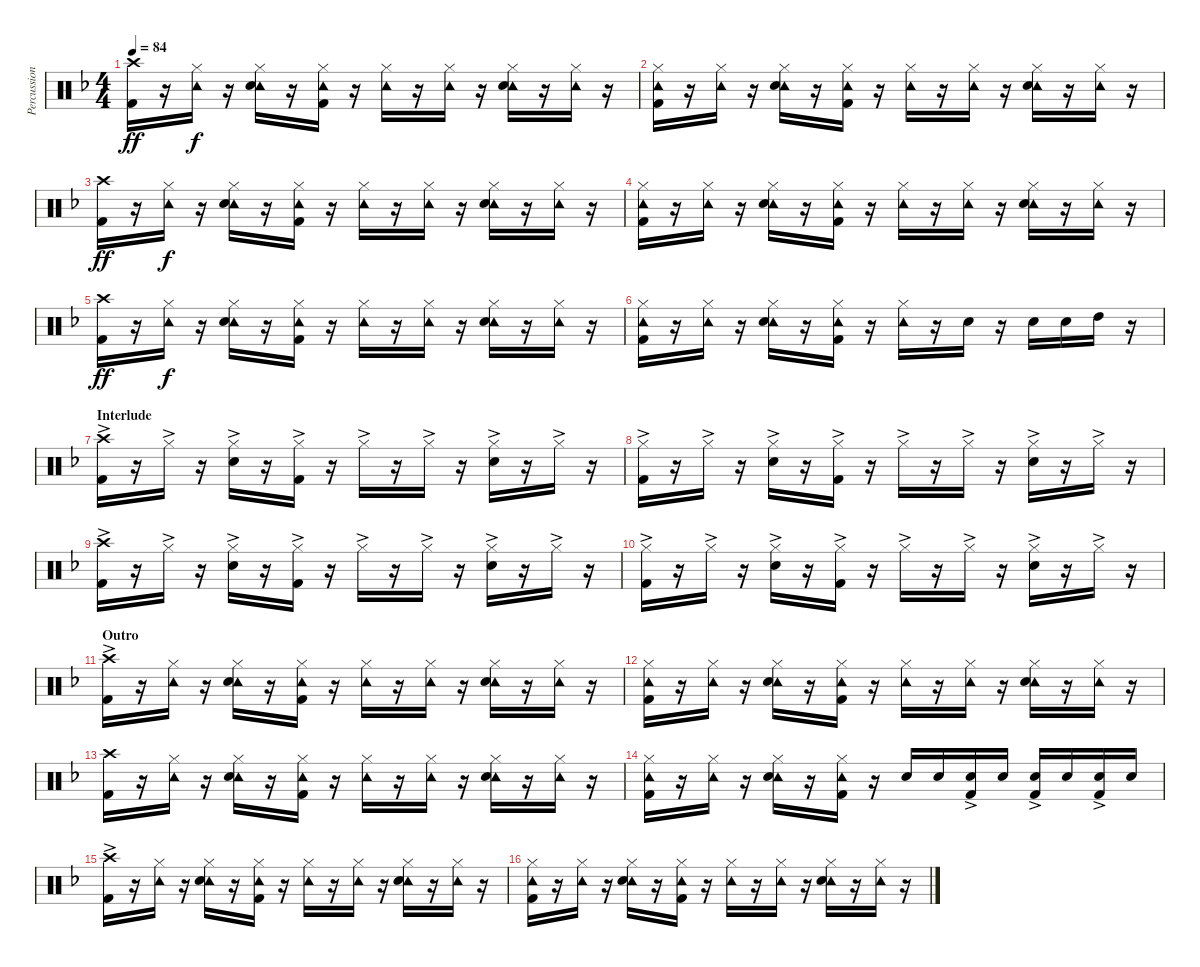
\track ("Percussion" "Percussion") {instrument percussion}
\staff {score}
\articulation defaults
\ts (4 4)
\tempo 84
\clef neutral
\ks f
("Crash high (hit)" "Kick (hit) 2").16{dy ff} r.16 ("Hi-Hat (closed)" "Tambourine (hit)").16{dy f} r.16 ("Hi-Hat (closed)" "Tambourine (hit)" "Snare (hit) 2").16 r.16 ("Hi-Hat (closed)" "Tambourine (hit)" "Kick (hit) 2").16 r.16 ("Hi-Hat (closed)" "Tambourine (hit)").16 r.16 ("Hi-Hat (closed)" "Tambourine (hit)").16 r.16 ("Hi-Hat (closed)" "Tambourine (hit)" "Snare (hit) 2").16 r.16 ("Hi-Hat (closed)" "Tambourine (hit)").16 r.16 |
("Hi-Hat (closed)" "Tambourine (hit)" "Kick (hit) 2").16 r.16 ("Hi-Hat (closed)" "Tambourine (hit)").16 r.16 ("Hi-Hat (closed)" "Tambourine (hit)" "Snare (hit) 2").16 r.16 ("Hi-Hat (closed)" "Tambourine (hit)" "Kick (hit) 2").16 r.16 ("Hi-Hat (closed)" "Tambourine (hit)").16 r.16 ("Hi-Hat (closed)" "Tambourine (hit)").16 r.16 ("Hi-Hat (closed)" "Tambourine (hit)" "Snare (hit) 2").16 r.16 ("Hi-Hat (closed)" "Tambourine (hit)").16 r.16 |
("Crash high (hit)" "Kick (hit) 2").16{dy ff} r.16 ("Hi-Hat (closed)" "Tambourine (hit)").16{dy f} r.16 ("Hi-Hat (closed)" "Tambourine (hit)" "Snare (hit) 2").16 r.16 ("Hi-Hat (closed)" "Tambourine (hit)" "Kick (hit) 2").16 r.16 ("Hi-Hat (closed)" "Tambourine (hit)").16 r.16 ("Hi-Hat (closed)" "Tambourine (hit)").16 r.16 ("Hi-Hat (closed)" "Tambourine (hit)" "Snare (hit) 2").16 r.16 ("Hi-Hat (closed)" "Tambourine (hit)").16 r.16 |
("Hi-Hat (closed)" "Tambourine (hit)" "Kick (hit) 2").16 r.16 ("Hi-Hat (closed)" "Tambourine (hit)").16 r.16 ("Hi-Hat (closed)" "Tambourine (hit)" "Snare (hit) 2").16 r.16 ("Hi-Hat (closed)" "Tambourine (hit)" "Kick (hit) 2").16 r.16 ("Hi-Hat (closed)" "Tambourine (hit)").16 r.16 ("Hi-Hat (closed)" "Tambourine (hit)").16 r.16 ("Hi-Hat (closed)" "Tambourine (hit)" "Snare (hit) 2").16 r.16 ("Hi-Hat (closed)" "Tambourine (hit)").16 r.16 |
("Crash high (hit)" "Kick (hit) 2").16{dy ff} r.16 ("Hi-Hat (closed)" "Tambourine (hit)").16{dy f} r.16 ("Hi-Hat (closed)" "Tambourine (hit)" "Snare (hit) 2").16 r.16 ("Hi-Hat (closed)" "Tambourine (hit)" "Kick (hit) 2").16 r.16 ("Hi-Hat (closed)" "Tambourine (hit)").16 r.16 ("Hi-Hat (closed)" "Tambourine (hit)").16 r.16 ("Hi-Hat (closed)" "Tambourine (hit)" "Snare (hit) 2").16 r.16 ("Hi-Hat (closed)" "Tambourine (hit)").16 r.16 |
("Hi-Hat (closed)" "Tambourine (hit)" "Kick (hit) 2").16 r.16 ("Hi-Hat (closed)" "Tambourine (hit)").16 r.16 ("Hi-Hat (closed)" "Tambourine (hit)" "Snare (hit) 2").16 r.16 ("Hi-Hat (closed)" "Tambourine (hit)" "Kick (hit) 2").16 r.16 ("Hi-Hat (closed)" "Tambourine (hit)").16 r.16 "Snare (hit) 2".16 r.16 "Snare (hit) 2".16 "Snare (hit) 2".16 "High Tom (hit)".16 r.16 |
\section ("" "Interlude")
("Crash high (hit)"{ac} "Kick (hit) 2").16 r.16 "Hi-Hat (closed)"{ac}.16 r.16 ("Hi-Hat (closed)"{ac} "Snare (hit) 2").16 r.16 ("Hi-Hat (closed)"{ac} "Kick (hit) 2").16 r.16 "Hi-Hat (closed)"{ac}.16 r.16 "Hi-Hat (closed)"{ac}.16 r.16 ("Hi-Hat (closed)"{ac} "Snare (hit) 2").16 r.16 "Hi-Hat (closed)"{ac}.16 r.16 |
("Hi-Hat (closed)"{ac} "Kick (hit) 2").16 r.16 "Hi-Hat (closed)"{ac}.16 r.16 ("Hi-Hat (closed)"{ac} "Snare (hit) 2").16 r.16 ("Hi-Hat (closed)"{ac} "Kick (hit) 2").16 r.16 "Hi-Hat (closed)"{ac}.16 r.16 "Hi-Hat (closed)"{ac}.16 r.16 ("Hi-Hat (closed)"{ac} "Snare (hit) 2").16 r.16 "Hi-Hat (closed)"{ac}.16 r.16 |
("Crash high (hit)"{ac} "Kick (hit) 2").16 r.16 "Hi-Hat (closed)"{ac}.16 r.16 ("Hi-Hat (closed)"{ac} "Snare (hit) 2").16 r.16 ("Hi-Hat (closed)"{ac} "Kick (hit) 2").16 r.16 "Hi-Hat (closed)"{ac}.16 r.16 "Hi-Hat (closed)"{ac}.16 r.16 ("Hi-Hat (closed)"{ac} "Snare (hit) 2").16 r.16 "Hi-Hat (closed)"{ac}.16 r.16 |
("Hi-Hat (closed)"{ac} "Kick (hit) 2").16 r.16 "Hi-Hat (closed)"{ac}.16 r.16 ("Hi-Hat (closed)"{ac} "Snare (hit) 2").16 r.16 ("Hi-Hat (closed)"{ac} "Kick (hit) 2").16 r.16 "Hi-Hat (closed)"{ac}.16 r.16 "Hi-Hat (closed)"{ac}.16 r.16 ("Hi-Hat (closed)"{ac} "Snare (hit) 2").16 r.16 "Hi-Hat (closed)"{ac}.16 r.16 |
\section ("" "Outro")
("Crash high (hit)"{ac} "Kick (hit) 2").16 r.16 ("Hi-Hat (closed)" "Tambourine (hit)").16 r.16 ("Hi-Hat (closed)" "Tambourine (hit)" "Snare (hit) 2").16 r.16 ("Hi-Hat (closed)" "Tambourine (hit)" "Kick (hit) 2").16 r.16 ("Hi-Hat (closed)" "Tambourine (hit)").16 r.16 ("Hi-Hat (closed)" "Tambourine (hit)").16 r.16 ("Hi-Hat (closed)" "Tambourine (hit)" "Snare (hit) 2").16 r.16 ("Hi-Hat (closed)" "Tambourine (hit)").16 r.16 |
("Hi-Hat (closed)" "Tambourine (hit)" "Kick (hit) 2").16 r.16 ("Hi-Hat (closed)" "Tambourine (hit)").16 r.16 ("Hi-Hat (closed)" "Tambourine (hit)" "Snare (hit) 2").16 r.16 ("Hi-Hat (closed)" "Tambourine (hit)" "Kick (hit) 2").16 r.16 ("Hi-Hat (closed)" "Tambourine (hit)").16 r.16 ("Hi-Hat (closed)" "Tambourine (hit)").16 r.16 ("Hi-Hat (closed)" "Tambourine (hit)" "Snare (hit) 2").16 r.16 ("Hi-Hat (closed)" "Tambourine (hit)").16 r.16 |
("Crash high (hit)" "Kick (hit) 2").16 r.16 ("Hi-Hat (closed)" "Tambourine (hit)").16 r.16 ("Hi-Hat (closed)" "Tambourine (hit)" "Snare (hit) 2").16 r.16 ("Hi-Hat (closed)" "Tambourine (hit)" "Kick (hit) 2").16 r.16 ("Hi-Hat (closed)" "Tambourine (hit)").16 r.16 ("Hi-Hat (closed)" "Tambourine (hit)").16 r.16 ("Hi-Hat (closed)" "Tambourine (hit)" "Snare (hit) 2").16 r.16 ("Hi-Hat (closed)" "Tambourine (hit)").16 r.16 |
("Hi-Hat (closed)" "Tambourine (hit)" "Kick (hit) 2").16 r.16 ("Hi-Hat (closed)" "Tambourine (hit)").16 r.16 ("Hi-Hat (closed)" "Tambourine (hit)" "Snare (hit) 2").16 r.16 ("Hi-Hat (closed)" "Tambourine (hit)" "Kick (hit) 2").16 r.16 "Snare (hit) 2".16 "Snare (hit) 2".16 ("Snare (hit) 2"{ac} "Kick (hit) 2").16 "Snare (hit) 2".16 ("Snare (hit) 2"{ac} "Kick (hit) 2").16 "Snare (hit) 2".16 ("Snare (hit) 2"{ac} "Kick (hit) 2").16 "Snare (hit) 2".16 |
("Crash high (hit)"{ac} "Kick (hit) 2").16 r.16 ("Hi-Hat (closed)" "Tambourine (hit)").16 r.16 ("Hi-Hat (closed)" "Tambourine (hit)" "Snare (hit) 2").16 r.16 ("Hi-Hat (closed)" "Tambourine (hit)" "Kick (hit) 2").16 r.16 ("Hi-Hat (closed)" "Tambourine (hit)").16 r.16 ("Hi-Hat (closed)" "Tambourine (hit)").16 r.16 ("Hi-Hat (closed)" "Tambourine (hit)" "Snare (hit) 2").16 r.16 ("Hi-Hat (closed)" "Tambourine (hit)").16 r.16 |
("Hi-Hat (closed)" "Tambourine (hit)" "Kick (hit) 2").16 r.16 ("Hi-Hat (closed)" "Tambourine (hit)").16 r.16 ("Hi-Hat (closed)" "Tambourine (hit)" "Snare (hit) 2").16 r.16 ("Hi-Hat (closed)" "Tambourine (hit)" "Kick (hit) 2").16 r.16 ("Hi-Hat (closed)" "Tambourine (hit)").16 r.16 ("Hi-Hat (closed)" "Tambourine (hit)").16 r.16 ("Hi-Hat (closed)" "Tambourine (hit)" "Snare (hit) 2").16 r.16 ("Hi-Hat (closed)" "Tambourine (hit)").16 r.16
